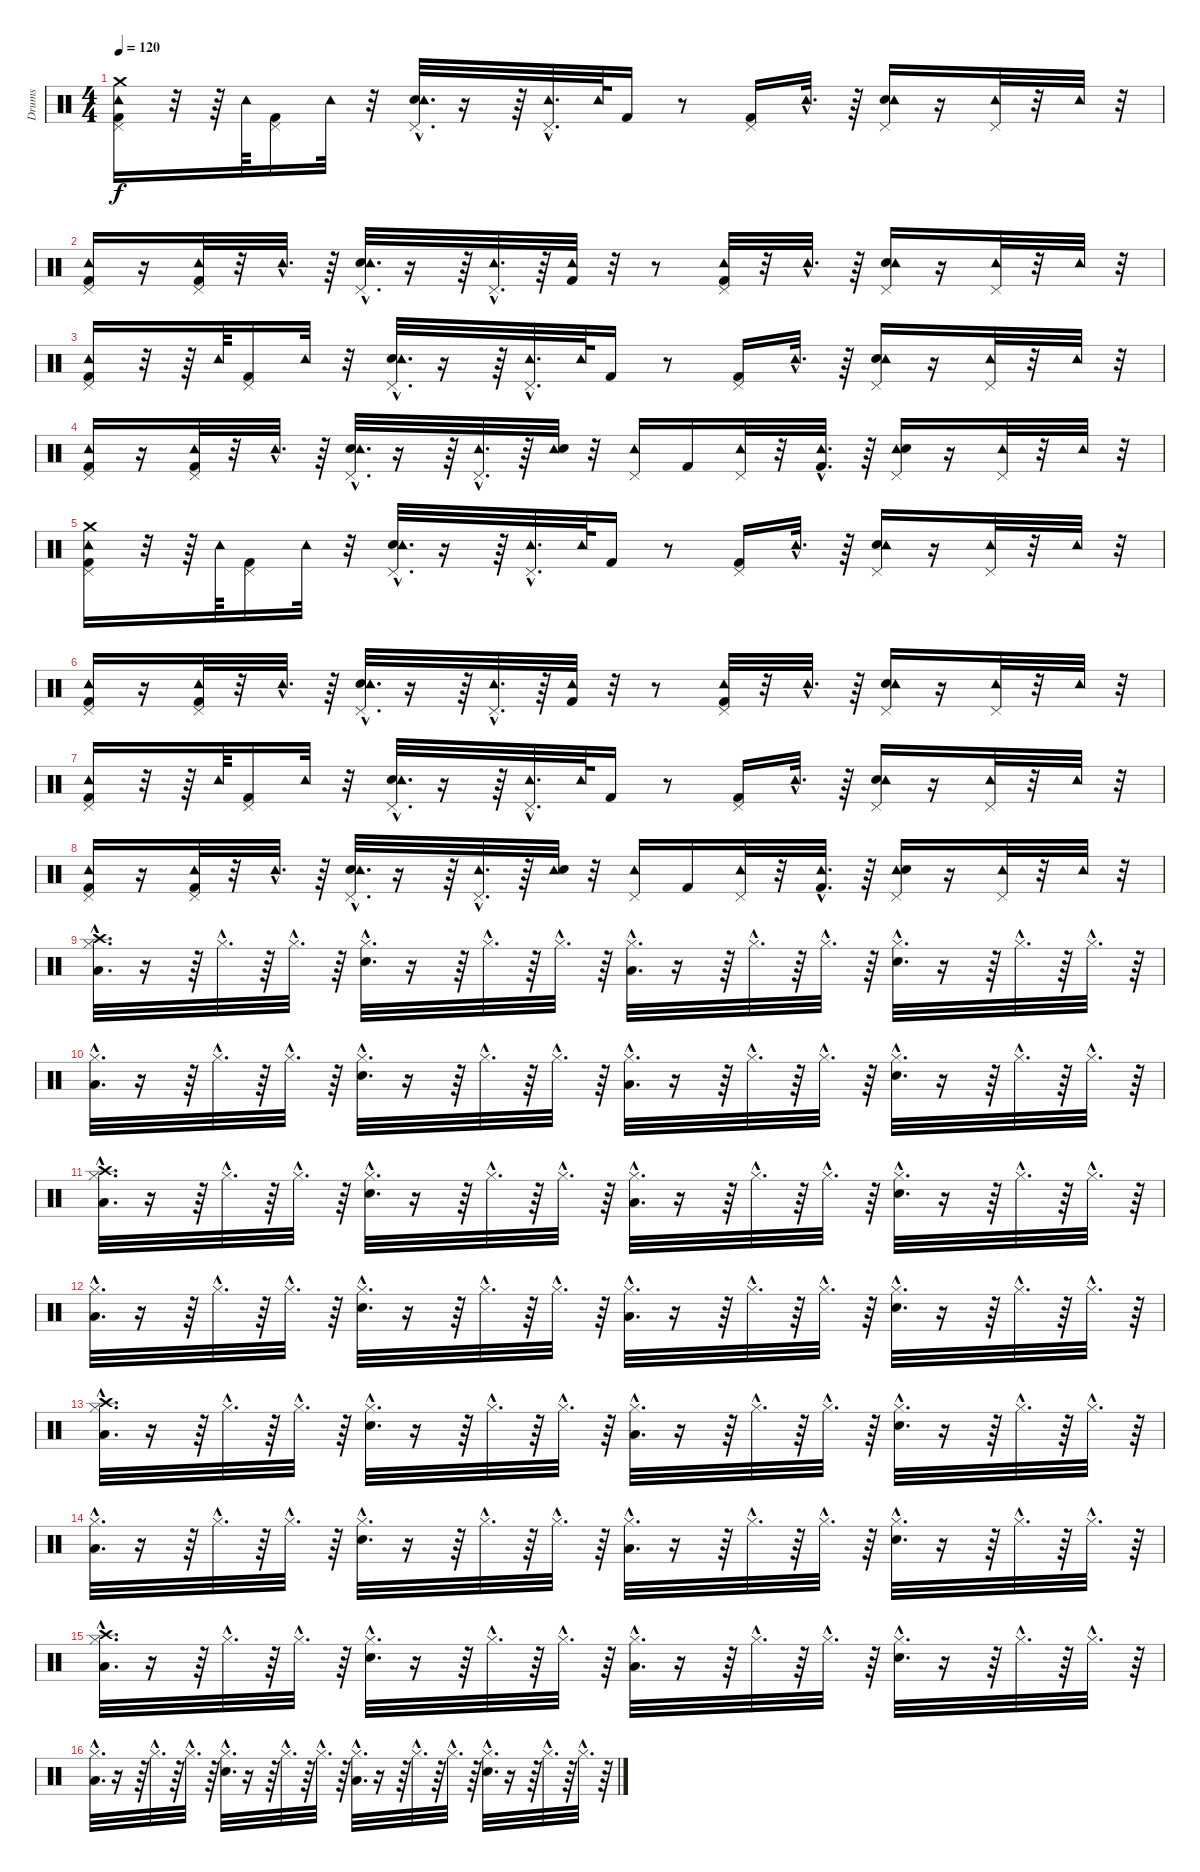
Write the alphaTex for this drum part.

\track ("Drums" "Drums") {instrument percussion}
\staff {score}
\articulation defaults
\ts (4 4)
\tempo 120
\clef neutral
\ks c
("Tambourine (hit)" "Pedal Hi-Hat (hit)" "Kick (hit) 2" "Crash medium (hit)").16{dy f} r.32 r.64 "Tambourine (hit)".64 ("Kick (hit) 2" "Pedal Hi-Hat (hit)").16 "Tambourine (hit)".32 r.32 ("Electric Snare (hit)"{hac} "Pedal Hi-Hat (hit)"{hac} "Tambourine (hit)"{hac}).32{d} r.16 r.64 ("Pedal Hi-Hat (hit)"{hac} "Tambourine (hit)"{hac}).32{d} "Tambourine (hit)".64 "Kick (hit) 2".16 r.8 ("Kick (hit) 2" "Pedal Hi-Hat (hit)").16 "Tambourine (hit)"{hac}.32{d} r.64 ("Electric Snare (hit)" "Pedal Hi-Hat (hit)" "Tambourine (hit)").16 r.16 ("Pedal Hi-Hat (hit)" "Tambourine (hit)").32 r.32 "Tambourine (hit)".32 r.32 |
("Kick (hit) 2" "Pedal Hi-Hat (hit)" "Tambourine (hit)").16 r.16 ("Kick (hit) 2" "Pedal Hi-Hat (hit)" "Tambourine (hit)").32 r.32 "Tambourine (hit)"{hac}.32{d} r.64 ("Electric Snare (hit)"{hac} "Pedal Hi-Hat (hit)"{hac} "Tambourine (hit)"{hac}).32{d} r.16 r.64 ("Pedal Hi-Hat (hit)"{hac} "Tambourine (hit)"{hac}).32{d} r.64 ("Kick (hit) 2" "Tambourine (hit)").32 r.32 r.8 ("Kick (hit) 2" "Pedal Hi-Hat (hit)" "Tambourine (hit)").32 r.32 "Tambourine (hit)"{hac}.32{d} r.64 ("Electric Snare (hit)" "Pedal Hi-Hat (hit)" "Tambourine (hit)").16 r.16 ("Pedal Hi-Hat (hit)" "Tambourine (hit)").32 r.32 "Tambourine (hit)".32 r.32 |
("Kick (hit) 2" "Pedal Hi-Hat (hit)" "Tambourine (hit)").16 r.32 r.64 "Tambourine (hit)".64 ("Kick (hit) 2" "Pedal Hi-Hat (hit)").16 "Tambourine (hit)".32 r.32 ("Electric Snare (hit)"{hac} "Pedal Hi-Hat (hit)"{hac} "Tambourine (hit)"{hac}).32{d} r.16 r.64 ("Pedal Hi-Hat (hit)"{hac} "Tambourine (hit)"{hac}).32{d} "Tambourine (hit)".64 "Kick (hit) 2".16 r.8 ("Kick (hit) 2" "Pedal Hi-Hat (hit)").16 "Tambourine (hit)"{hac}.32{d} r.64 ("Electric Snare (hit)" "Pedal Hi-Hat (hit)" "Tambourine (hit)").16 r.16 ("Pedal Hi-Hat (hit)" "Tambourine (hit)").32 r.32 "Tambourine (hit)".32 r.32 |
("Kick (hit) 2" "Pedal Hi-Hat (hit)" "Tambourine (hit)").16 r.16 ("Kick (hit) 2" "Pedal Hi-Hat (hit)" "Tambourine (hit)").32 r.32 "Tambourine (hit)"{hac}.32{d} r.64 ("Electric Snare (hit)"{hac} "Pedal Hi-Hat (hit)"{hac} "Tambourine (hit)"{hac}).32{d} r.16 r.64 ("Pedal Hi-Hat (hit)"{hac} "Tambourine (hit)"{hac}).32{d} r.64 ("Tambourine (hit)" "Electric Snare (hit)").32 r.32 ("Pedal Hi-Hat (hit)" "Tambourine (hit)").16 "Kick (hit) 2".16 ("Pedal Hi-Hat (hit)" "Tambourine (hit)").32 r.32 ("Tambourine (hit)"{hac} "Kick (hit) 2"{hac}).32{d} r.64 ("Pedal Hi-Hat (hit)" "Tambourine (hit)" "Electric Snare (hit)").16 r.16 ("Pedal Hi-Hat (hit)" "Tambourine (hit)").32 r.32 "Tambourine (hit)".32 r.32 |
("Tambourine (hit)" "Pedal Hi-Hat (hit)" "Kick (hit) 2" "Crash medium (hit)").16 r.32 r.64 "Tambourine (hit)".64 ("Kick (hit) 2" "Pedal Hi-Hat (hit)").16 "Tambourine (hit)".32 r.32 ("Electric Snare (hit)"{hac} "Pedal Hi-Hat (hit)"{hac} "Tambourine (hit)"{hac}).32{d} r.16 r.64 ("Pedal Hi-Hat (hit)"{hac} "Tambourine (hit)"{hac}).32{d} "Tambourine (hit)".64 "Kick (hit) 2".16 r.8 ("Kick (hit) 2" "Pedal Hi-Hat (hit)").16 "Tambourine (hit)"{hac}.32{d} r.64 ("Electric Snare (hit)" "Pedal Hi-Hat (hit)" "Tambourine (hit)").16 r.16 ("Pedal Hi-Hat (hit)" "Tambourine (hit)").32 r.32 "Tambourine (hit)".32 r.32 |
("Kick (hit) 2" "Pedal Hi-Hat (hit)" "Tambourine (hit)").16 r.16 ("Kick (hit) 2" "Pedal Hi-Hat (hit)" "Tambourine (hit)").32 r.32 "Tambourine (hit)"{hac}.32{d} r.64 ("Electric Snare (hit)"{hac} "Pedal Hi-Hat (hit)"{hac} "Tambourine (hit)"{hac}).32{d} r.16 r.64 ("Pedal Hi-Hat (hit)"{hac} "Tambourine (hit)"{hac}).32{d} r.64 ("Kick (hit) 2" "Tambourine (hit)").32 r.32 r.8 ("Kick (hit) 2" "Pedal Hi-Hat (hit)" "Tambourine (hit)").32 r.32 "Tambourine (hit)"{hac}.32{d} r.64 ("Electric Snare (hit)" "Pedal Hi-Hat (hit)" "Tambourine (hit)").16 r.16 ("Pedal Hi-Hat (hit)" "Tambourine (hit)").32 r.32 "Tambourine (hit)".32 r.32 |
("Kick (hit) 2" "Pedal Hi-Hat (hit)" "Tambourine (hit)").16 r.32 r.64 "Tambourine (hit)".64 ("Kick (hit) 2" "Pedal Hi-Hat (hit)").16 "Tambourine (hit)".32 r.32 ("Electric Snare (hit)"{hac} "Pedal Hi-Hat (hit)"{hac} "Tambourine (hit)"{hac}).32{d} r.16 r.64 ("Pedal Hi-Hat (hit)"{hac} "Tambourine (hit)"{hac}).32{d} "Tambourine (hit)".64 "Kick (hit) 2".16 r.8 ("Kick (hit) 2" "Pedal Hi-Hat (hit)").16 "Tambourine (hit)"{hac}.32{d} r.64 ("Electric Snare (hit)" "Pedal Hi-Hat (hit)" "Tambourine (hit)").16 r.16 ("Pedal Hi-Hat (hit)" "Tambourine (hit)").32 r.32 "Tambourine (hit)".32 r.32 |
("Kick (hit) 2" "Pedal Hi-Hat (hit)" "Tambourine (hit)").16 r.16 ("Kick (hit) 2" "Pedal Hi-Hat (hit)" "Tambourine (hit)").32 r.32 "Tambourine (hit)"{hac}.32{d} r.64 ("Electric Snare (hit)"{hac} "Pedal Hi-Hat (hit)"{hac} "Tambourine (hit)"{hac}).32{d} r.16 r.64 ("Pedal Hi-Hat (hit)"{hac} "Tambourine (hit)"{hac}).32{d} r.64 ("Tambourine (hit)" "Electric Snare (hit)").32 r.32 ("Pedal Hi-Hat (hit)" "Tambourine (hit)").16 "Kick (hit) 2".16 ("Pedal Hi-Hat (hit)" "Tambourine (hit)").32 r.32 ("Tambourine (hit)"{hac} "Kick (hit) 2"{hac}).32{d} r.64 ("Pedal Hi-Hat (hit)" "Tambourine (hit)" "Electric Snare (hit)").16 r.16 ("Pedal Hi-Hat (hit)" "Tambourine (hit)").32 r.32 "Tambourine (hit)".32 r.32 |
("Hi-Hat (closed)"{hac} "Crash high (hit)"{hac} "Low Tom (hit)"{hac}).32{d} r.16 r.64 "Hi-Hat (closed)"{hac}.32{d} r.64 "Hi-Hat (closed)"{hac}.32{d} r.64 ("Hi-Hat (closed)"{hac} "Snare (hit) 2"{hac}).32{d} r.16 r.64 "Hi-Hat (closed)"{hac}.32{d} r.64 "Hi-Hat (closed)"{hac}.32{d} r.64 ("Hi-Hat (closed)"{hac} "Low Tom (hit)"{hac}).32{d} r.16 r.64 "Hi-Hat (closed)"{hac}.32{d} r.64 "Hi-Hat (closed)"{hac}.32{d} r.64 ("Hi-Hat (closed)"{hac} "Snare (hit) 2"{hac}).32{d} r.16 r.64 "Hi-Hat (closed)"{hac}.32{d} r.64 "Hi-Hat (closed)"{hac}.32{d} r.64 |
("Hi-Hat (closed)"{hac} "Low Tom (hit)"{hac}).32{d} r.16 r.64 "Hi-Hat (closed)"{hac}.32{d} r.64 "Hi-Hat (closed)"{hac}.32{d} r.64 ("Hi-Hat (closed)"{hac} "Snare (hit) 2"{hac}).32{d} r.16 r.64 "Hi-Hat (closed)"{hac}.32{d} r.64 "Hi-Hat (closed)"{hac}.32{d} r.64 ("Hi-Hat (closed)"{hac} "Low Tom (hit)"{hac}).32{d} r.16 r.64 "Hi-Hat (closed)"{hac}.32{d} r.64 "Hi-Hat (closed)"{hac}.32{d} r.64 ("Hi-Hat (closed)"{hac} "Snare (hit) 2"{hac}).32{d} r.16 r.64 "Hi-Hat (closed)"{hac}.32{d} r.64 "Hi-Hat (closed)"{hac}.32{d} r.64 |
("Hi-Hat (closed)"{hac} "Crash high (hit)"{hac} "Low Tom (hit)"{hac}).32{d} r.16 r.64 "Hi-Hat (closed)"{hac}.32{d} r.64 "Hi-Hat (closed)"{hac}.32{d} r.64 ("Hi-Hat (closed)"{hac} "Snare (hit) 2"{hac}).32{d} r.16 r.64 "Hi-Hat (closed)"{hac}.32{d} r.64 "Hi-Hat (closed)"{hac}.32{d} r.64 ("Hi-Hat (closed)"{hac} "Low Tom (hit)"{hac}).32{d} r.16 r.64 "Hi-Hat (closed)"{hac}.32{d} r.64 "Hi-Hat (closed)"{hac}.32{d} r.64 ("Hi-Hat (closed)"{hac} "Snare (hit) 2"{hac}).32{d} r.16 r.64 "Hi-Hat (closed)"{hac}.32{d} r.64 "Hi-Hat (closed)"{hac}.32{d} r.64 |
("Hi-Hat (closed)"{hac} "Low Tom (hit)"{hac}).32{d} r.16 r.64 "Hi-Hat (closed)"{hac}.32{d} r.64 "Hi-Hat (closed)"{hac}.32{d} r.64 ("Hi-Hat (closed)"{hac} "Snare (hit) 2"{hac}).32{d} r.16 r.64 "Hi-Hat (closed)"{hac}.32{d} r.64 "Hi-Hat (closed)"{hac}.32{d} r.64 ("Hi-Hat (closed)"{hac} "Low Tom (hit)"{hac}).32{d} r.16 r.64 "Hi-Hat (closed)"{hac}.32{d} r.64 "Hi-Hat (closed)"{hac}.32{d} r.64 ("Hi-Hat (closed)"{hac} "Snare (hit) 2"{hac}).32{d} r.16 r.64 "Hi-Hat (closed)"{hac}.32{d} r.64 "Hi-Hat (closed)"{hac}.32{d} r.64 |
("Hi-Hat (closed)"{hac} "Crash high (hit)"{hac} "Low Tom (hit)"{hac}).32{d} r.16 r.64 "Hi-Hat (closed)"{hac}.32{d} r.64 "Hi-Hat (closed)"{hac}.32{d} r.64 ("Hi-Hat (closed)"{hac} "Snare (hit) 2"{hac}).32{d} r.16 r.64 "Hi-Hat (closed)"{hac}.32{d} r.64 "Hi-Hat (closed)"{hac}.32{d} r.64 ("Hi-Hat (closed)"{hac} "Low Tom (hit)"{hac}).32{d} r.16 r.64 "Hi-Hat (closed)"{hac}.32{d} r.64 "Hi-Hat (closed)"{hac}.32{d} r.64 ("Hi-Hat (closed)"{hac} "Snare (hit) 2"{hac}).32{d} r.16 r.64 "Hi-Hat (closed)"{hac}.32{d} r.64 "Hi-Hat (closed)"{hac}.32{d} r.64 |
("Hi-Hat (closed)"{hac} "Low Tom (hit)"{hac}).32{d} r.16 r.64 "Hi-Hat (closed)"{hac}.32{d} r.64 "Hi-Hat (closed)"{hac}.32{d} r.64 ("Hi-Hat (closed)"{hac} "Snare (hit) 2"{hac}).32{d} r.16 r.64 "Hi-Hat (closed)"{hac}.32{d} r.64 "Hi-Hat (closed)"{hac}.32{d} r.64 ("Hi-Hat (closed)"{hac} "Low Tom (hit)"{hac}).32{d} r.16 r.64 "Hi-Hat (closed)"{hac}.32{d} r.64 "Hi-Hat (closed)"{hac}.32{d} r.64 ("Hi-Hat (closed)"{hac} "Snare (hit) 2"{hac}).32{d} r.16 r.64 "Hi-Hat (closed)"{hac}.32{d} r.64 "Hi-Hat (closed)"{hac}.32{d} r.64 |
("Hi-Hat (closed)"{hac} "Crash high (hit)"{hac} "Low Tom (hit)"{hac}).32{d} r.16 r.64 "Hi-Hat (closed)"{hac}.32{d} r.64 "Hi-Hat (closed)"{hac}.32{d} r.64 ("Hi-Hat (closed)"{hac} "Snare (hit) 2"{hac}).32{d} r.16 r.64 "Hi-Hat (closed)"{hac}.32{d} r.64 "Hi-Hat (closed)"{hac}.32{d} r.64 ("Hi-Hat (closed)"{hac} "Low Tom (hit)"{hac}).32{d} r.16 r.64 "Hi-Hat (closed)"{hac}.32{d} r.64 "Hi-Hat (closed)"{hac}.32{d} r.64 ("Hi-Hat (closed)"{hac} "Snare (hit) 2"{hac}).32{d} r.16 r.64 "Hi-Hat (closed)"{hac}.32{d} r.64 "Hi-Hat (closed)"{hac}.32{d} r.64 |
("Hi-Hat (closed)"{hac} "Low Tom (hit)"{hac}).32{d} r.16 r.64 "Hi-Hat (closed)"{hac}.32{d} r.64 "Hi-Hat (closed)"{hac}.32{d} r.64 ("Hi-Hat (closed)"{hac} "Snare (hit) 2"{hac}).32{d} r.16 r.64 "Hi-Hat (closed)"{hac}.32{d} r.64 "Hi-Hat (closed)"{hac}.32{d} r.64 ("Hi-Hat (closed)"{hac} "Low Tom (hit)"{hac}).32{d} r.16 r.64 "Hi-Hat (closed)"{hac}.32{d} r.64 "Hi-Hat (closed)"{hac}.32{d} r.64 ("Hi-Hat (closed)"{hac} "Snare (hit) 2"{hac}).32{d} r.16 r.64 "Hi-Hat (closed)"{hac}.32{d} r.64 "Hi-Hat (closed)"{hac}.32{d} r.64
